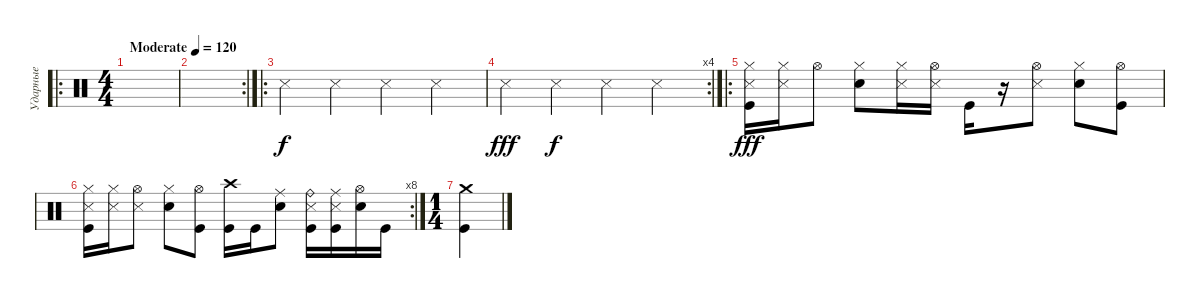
\track ("Ударные" "Ударные") {instrument percussion}
\staff {score}
\articulation defaults
\ro
\ts (4 4)
\tempo (120 "Moderate")
\clef neutral
\ks c
|
\rc 2
|
\ro "Snare (side stick) 3".4 "Snare (side stick) 3".4 "Snare (side stick) 3".4 "Snare (side stick) 3".4
|
\rc 4 "Snare (side stick) 3".4{dy fff} "Snare (side stick) 3".4{dy f} "Snare (side stick) 3".4 "Snare (side stick) 3".4
|
\ro
("Hi-Hat (closed)" "Snare (side stick) 3" "Kick (hit)").16{dy fff} ("Hi-Hat (closed)" "Snare (side stick) 3").16 "Hi-Hat (open)".8 ("Hi-Hat (closed)" "Electric Snare (hit)").8 ("Hi-Hat (closed)" "Snare (side stick) 3").16 ("Hi-Hat (open)" "Snare (side stick) 3").16 "Kick (hit)".16 r.16 ("Hi-Hat (open)" "Snare (side stick) 3").8 ("Hi-Hat (closed)" "Electric Snare (hit)").8 ("Hi-Hat (open)" "Kick (hit)").8 |
\rc 8
("Hi-Hat (closed)" "Snare (side stick) 3" "Kick (hit)").16 ("Hi-Hat (closed)" "Snare (side stick) 3").16 ("Hi-Hat (open)" "Snare (side stick) 3").8 ("Hi-Hat (closed)" "Electric Snare (hit)").8 ("Hi-Hat (open)" "Kick (hit)").8 ("Crash high (hit)" "Kick (hit)").16 "Kick (hit)".16 ("Ride (middle)" "Electric Snare (hit)").8 ("Ride (bell)" "Snare (side stick) 3" "Kick (hit)").16 ("Ride (middle)" "Snare (side stick) 3" "Kick (hit)").16 ("Hi-Hat (open)" "Electric Snare (hit)").16 "Kick (hit)".16 |
\ts (1 4)
("Crash medium (hit)" "Kick (hit)").4
